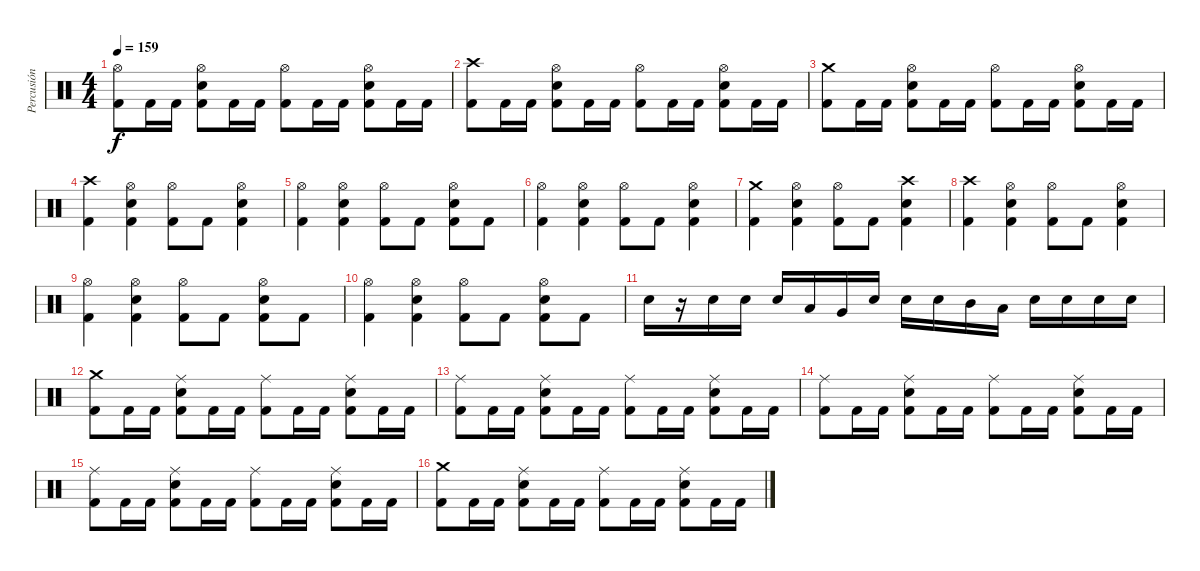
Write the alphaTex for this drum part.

\track ("Percusión" "Percusión") {instrument percussion}
\staff {score}
\articulation defaults
\ts (4 4)
\tempo 159
\clef neutral
\ks c
("Hi-Hat (open)" "Kick (hit) 2").8{dy f} "Kick (hit) 2".16 "Kick (hit) 2".16 ("Hi-Hat (open)" "Electric Snare (hit)" "Kick (hit) 2").8 "Kick (hit) 2".16 "Kick (hit) 2".16 ("Hi-Hat (open)" "Kick (hit) 2").8 "Kick (hit) 2".16 "Kick (hit) 2".16 ("Hi-Hat (open)" "Electric Snare (hit)" "Kick (hit) 2").8 "Kick (hit) 2".16 "Kick (hit) 2".16 |
("Crash high (hit)" "Kick (hit) 2").8 "Kick (hit) 2".16 "Kick (hit) 2".16 ("Hi-Hat (open)" "Electric Snare (hit)" "Kick (hit) 2").8 "Kick (hit) 2".16 "Kick (hit) 2".16 ("Hi-Hat (open)" "Kick (hit) 2").8 "Kick (hit) 2".16 "Kick (hit) 2".16 ("Hi-Hat (open)" "Electric Snare (hit)" "Kick (hit) 2").8 "Kick (hit) 2".16 "Kick (hit) 2".16 |
("Crash medium (hit)" "Kick (hit) 2").8 "Kick (hit) 2".16 "Kick (hit) 2".16 ("Hi-Hat (open)" "Electric Snare (hit)" "Kick (hit) 2").8 "Kick (hit) 2".16 "Kick (hit) 2".16 ("Hi-Hat (open)" "Kick (hit) 2").8 "Kick (hit) 2".16 "Kick (hit) 2".16 ("Hi-Hat (open)" "Electric Snare (hit)" "Kick (hit) 2").8 "Kick (hit) 2".16 "Kick (hit) 2".16 |
("Crash high (hit)" "Kick (hit) 2").4 ("Hi-Hat (open)" "Electric Snare (hit)" "Kick (hit) 2").4 ("Hi-Hat (open)" "Kick (hit) 2").8 "Kick (hit) 2".8 ("Hi-Hat (open)" "Electric Snare (hit)" "Kick (hit) 2").4 |
("Hi-Hat (open)" "Kick (hit) 2").4 ("Hi-Hat (open)" "Electric Snare (hit)" "Kick (hit) 2").4 ("Hi-Hat (open)" "Kick (hit) 2").8 "Kick (hit) 2".8 ("Hi-Hat (open)" "Electric Snare (hit)" "Kick (hit) 2").8 "Kick (hit) 2".8 |
("Hi-Hat (open)" "Kick (hit) 2").4 ("Hi-Hat (open)" "Electric Snare (hit)" "Kick (hit) 2").4 ("Hi-Hat (open)" "Kick (hit) 2").8 "Kick (hit) 2".8 ("Hi-Hat (open)" "Electric Snare (hit)" "Kick (hit) 2").4 |
("Crash medium (hit)" "Kick (hit) 2").4 ("Hi-Hat (open)" "Electric Snare (hit)" "Kick (hit) 2").4 ("Hi-Hat (open)" "Kick (hit) 2").8 "Kick (hit) 2".8 ("Crash high (hit)" "Electric Snare (hit)" "Kick (hit) 2").4 |
("Crash high (hit)" "Kick (hit) 2").4 ("Hi-Hat (open)" "Electric Snare (hit)" "Kick (hit) 2").4 ("Hi-Hat (open)" "Kick (hit) 2").8 "Kick (hit) 2".8 ("Hi-Hat (open)" "Electric Snare (hit)" "Kick (hit) 2").4 |
("Hi-Hat (open)" "Kick (hit) 2").4 ("Hi-Hat (open)" "Electric Snare (hit)" "Kick (hit) 2").4 ("Hi-Hat (open)" "Kick (hit) 2").8 "Kick (hit) 2".8 ("Hi-Hat (open)" "Electric Snare (hit)" "Kick (hit) 2").8 "Kick (hit) 2".8 |
("Hi-Hat (open)" "Kick (hit) 2").4 ("Hi-Hat (open)" "Electric Snare (hit)" "Kick (hit) 2").4 ("Hi-Hat (open)" "Kick (hit) 2").8 "Kick (hit) 2".8 ("Hi-Hat (open)" "Electric Snare (hit)" "Kick (hit) 2").8 "Kick (hit) 2".8 |
"Electric Snare (hit)".16 r.16 "Electric Snare (hit)".16 "Electric Snare (hit)".16 "Electric Snare (hit)".16 "Low Tom (hit)".16 "Very Low Tom (hit)".16 "Electric Snare (hit)".16 "Electric Snare (hit)".16 "Electric Snare (hit)".16 "Mid Tom (hit)".16 "Low Tom (hit)".16 "Electric Snare (hit)".16 "Electric Snare (hit)".16 "Electric Snare (hit)".16 "Electric Snare (hit)".16 |
("Crash medium (hit)" "Kick (hit) 2").8 "Kick (hit) 2".16 "Kick (hit) 2".16 ("Ride (middle)" "Electric Snare (hit)" "Kick (hit) 2").8 "Kick (hit) 2".16 "Kick (hit) 2".16 ("Ride (middle)" "Kick (hit) 2").8 "Kick (hit) 2".16 "Kick (hit) 2".16 ("Ride (middle)" "Electric Snare (hit)" "Kick (hit) 2").8 "Kick (hit) 2".16 "Kick (hit) 2".16 |
("Ride (middle)" "Kick (hit) 2").8 "Kick (hit) 2".16 "Kick (hit) 2".16 ("Ride (middle)" "Electric Snare (hit)" "Kick (hit) 2").8 "Kick (hit) 2".16 "Kick (hit) 2".16 ("Ride (middle)" "Kick (hit) 2").8 "Kick (hit) 2".16 "Kick (hit) 2".16 ("Ride (middle)" "Electric Snare (hit)" "Kick (hit) 2").8 "Kick (hit) 2".16 "Kick (hit) 2".16 |
("Ride (middle)" "Kick (hit) 2").8 "Kick (hit) 2".16 "Kick (hit) 2".16 ("Ride (middle)" "Electric Snare (hit)" "Kick (hit) 2").8 "Kick (hit) 2".16 "Kick (hit) 2".16 ("Ride (middle)" "Kick (hit) 2").8 "Kick (hit) 2".16 "Kick (hit) 2".16 ("Ride (middle)" "Electric Snare (hit)" "Kick (hit) 2").8 "Kick (hit) 2".16 "Kick (hit) 2".16 |
("Ride (middle)" "Kick (hit) 2").8 "Kick (hit) 2".16 "Kick (hit) 2".16 ("Ride (middle)" "Electric Snare (hit)" "Kick (hit) 2").8 "Kick (hit) 2".16 "Kick (hit) 2".16 ("Ride (middle)" "Kick (hit) 2").8 "Kick (hit) 2".16 "Kick (hit) 2".16 ("Ride (middle)" "Electric Snare (hit)" "Kick (hit) 2").8 "Kick (hit) 2".16 "Kick (hit) 2".16 |
("Crash medium (hit)" "Kick (hit) 2").8 "Kick (hit) 2".16 "Kick (hit) 2".16 ("Ride (middle)" "Electric Snare (hit)" "Kick (hit) 2").8 "Kick (hit) 2".16 "Kick (hit) 2".16 ("Ride (middle)" "Kick (hit) 2").8 "Kick (hit) 2".16 "Kick (hit) 2".16 ("Ride (middle)" "Electric Snare (hit)" "Kick (hit) 2").8 "Kick (hit) 2".16 "Kick (hit) 2".16
